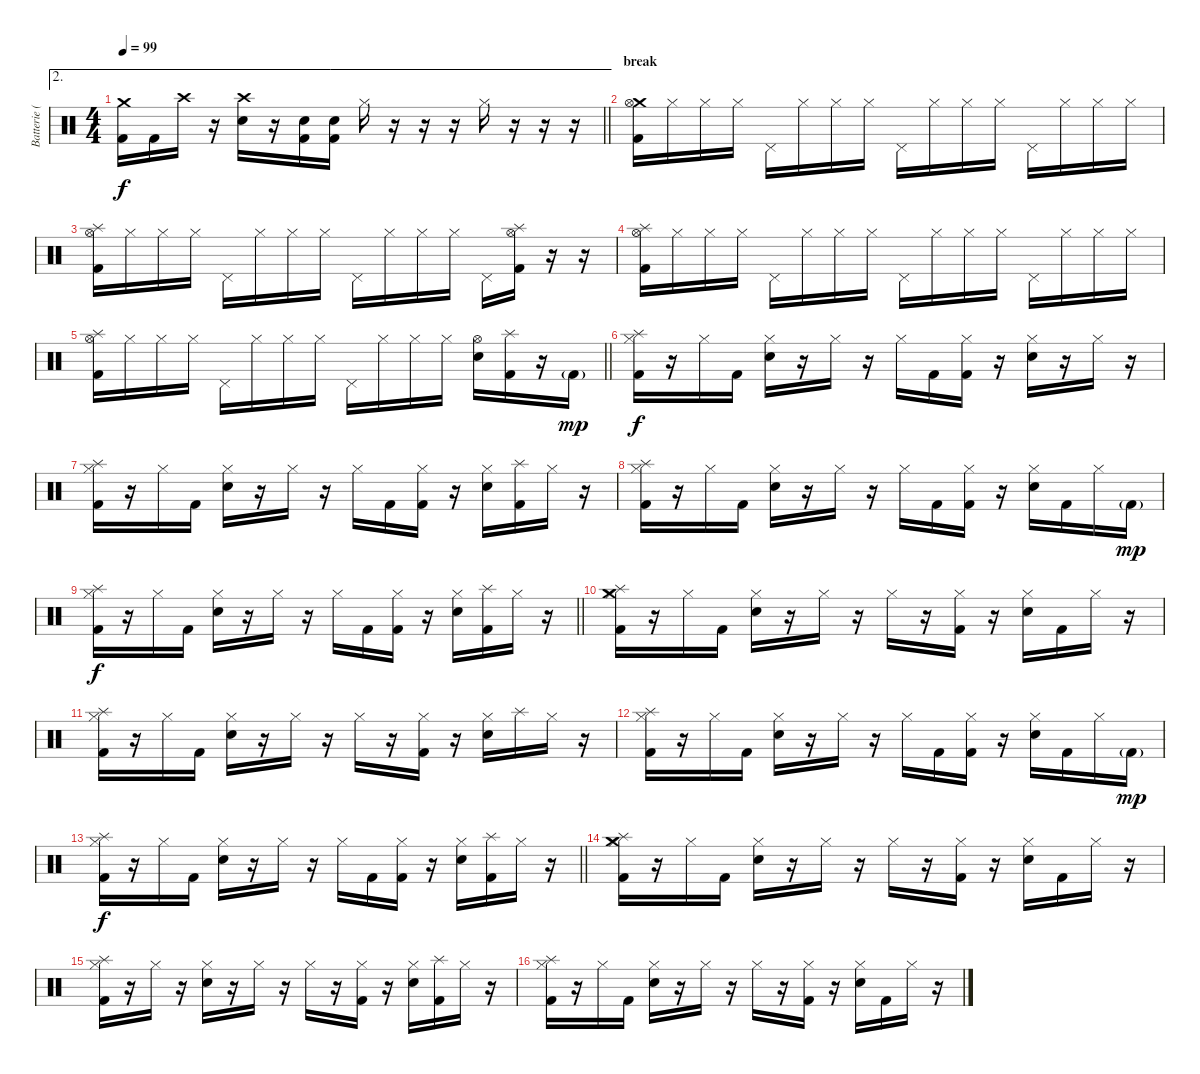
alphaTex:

\track ("Batterie (John)" "Batterie (") {instrument percussion}
\staff {score}
\articulation defaults
\ae 2
\ts (4 4)
\tempo 99
\clef neutral
\barLineRight lightlight
\ks c
("Crash medium (hit)" "Kick (hit) 2").16{dy f} "Kick (hit) 2".16 "Crash high (hit)".16 r.16 ("Crash high (hit)" "Electric Snare (hit)").16 r.16 ("Electric Snare (hit)" "Kick (hit) 2").16 ("Electric Snare (hit)" "Kick (hit) 2").16 "Hi-Hat (closed)".16 r.16 r.16 r.16 "Hi-Hat (closed)".16 r.16 r.16 r.16 |
\section ("" "break")
("Crash medium (hit)" "Hi-Hat (open)" "Kick (hit) 2").16 "Hi-Hat (closed)".16 "Hi-Hat (closed)".16 "Hi-Hat (closed)".16 "Pedal Hi-Hat (hit)".16 "Hi-Hat (closed)".16 "Hi-Hat (closed)".16 "Hi-Hat (closed)".16 "Pedal Hi-Hat (hit)".16 "Hi-Hat (closed)".16 "Hi-Hat (closed)".16 "Hi-Hat (closed)".16 "Pedal Hi-Hat (hit)".16 "Hi-Hat (closed)".16 "Hi-Hat (closed)".16 "Hi-Hat (closed)".16 |
("Splash (hit)" "Hi-Hat (open)" "Kick (hit) 2").16 "Hi-Hat (closed)".16 "Hi-Hat (closed)".16 "Hi-Hat (closed)".16 "Pedal Hi-Hat (hit)".16 "Hi-Hat (closed)".16 "Hi-Hat (closed)".16 "Hi-Hat (closed)".16 "Pedal Hi-Hat (hit)".16 "Hi-Hat (closed)".16 "Hi-Hat (closed)".16 "Hi-Hat (closed)".16 "Pedal Hi-Hat (hit)".16 ("Splash (hit)" "Hi-Hat (open)" "Kick (hit) 2").16 r.16 r.16 |
("Splash (hit)" "Hi-Hat (open)" "Kick (hit) 2").16 "Hi-Hat (closed)".16 "Hi-Hat (closed)".16 "Hi-Hat (closed)".16 "Pedal Hi-Hat (hit)".16 "Hi-Hat (closed)".16 "Hi-Hat (closed)".16 "Hi-Hat (closed)".16 "Pedal Hi-Hat (hit)".16 "Hi-Hat (closed)".16 "Hi-Hat (closed)".16 "Hi-Hat (closed)".16 "Pedal Hi-Hat (hit)".16 "Hi-Hat (closed)".16 "Hi-Hat (closed)".16 "Hi-Hat (closed)".16 |
\barLineRight lightlight
("Splash (hit)" "Hi-Hat (open)" "Kick (hit) 2").16 "Hi-Hat (closed)".16 "Hi-Hat (closed)".16 "Hi-Hat (closed)".16 "Pedal Hi-Hat (hit)".16 "Hi-Hat (closed)".16 "Hi-Hat (closed)".16 "Hi-Hat (closed)".16 "Pedal Hi-Hat (hit)".16 "Hi-Hat (closed)".16 "Hi-Hat (closed)".16 "Hi-Hat (closed)".16 ("Hi-Hat (open)" "Electric Snare (hit)").16 ("Splash (hit)" "Kick (hit) 2").16 r.16 "Kick (hit) 2"{g}.16{dy mp} |
("Splash (hit)" "Hi-Hat (closed)" "Kick (hit) 2").16{dy f} r.16 "Hi-Hat (closed)".16 "Kick (hit) 2".16 ("Hi-Hat (closed)" "Electric Snare (hit)").16 r.16 "Hi-Hat (closed)".16 r.16 "Hi-Hat (closed)".16 "Kick (hit) 2".16 ("Hi-Hat (closed)" "Kick (hit) 2").16 r.16 ("Hi-Hat (closed)" "Electric Snare (hit)").16 r.16 "Hi-Hat (closed)".16 r.16 |
("Splash (hit)" "Hi-Hat (closed)" "Kick (hit) 2").16 r.16 "Hi-Hat (closed)".16 "Kick (hit) 2".16 ("Hi-Hat (closed)" "Electric Snare (hit)").16 r.16 "Hi-Hat (closed)".16 r.16 "Hi-Hat (closed)".16 "Kick (hit) 2".16 ("Hi-Hat (closed)" "Kick (hit) 2").16 r.16 ("Hi-Hat (closed)" "Electric Snare (hit)").16 ("Splash (hit)" "Kick (hit) 2").16 "Hi-Hat (closed)".16 r.16 |
("Splash (hit)" "Hi-Hat (closed)" "Kick (hit) 2").16 r.16 "Hi-Hat (closed)".16 "Kick (hit) 2".16 ("Hi-Hat (closed)" "Electric Snare (hit)").16 r.16 "Hi-Hat (closed)".16 r.16 "Hi-Hat (closed)".16 "Kick (hit) 2".16 ("Hi-Hat (closed)" "Kick (hit) 2").16 r.16 ("Hi-Hat (closed)" "Electric Snare (hit)").16 "Kick (hit) 2".16 "Hi-Hat (closed)".16 "Kick (hit) 2"{g}.16{dy mp} |
\barLineRight lightlight
("Splash (hit)" "Hi-Hat (closed)" "Kick (hit) 2").16{dy f} r.16 "Hi-Hat (closed)".16 "Kick (hit) 2".16 ("Hi-Hat (closed)" "Electric Snare (hit)").16 r.16 "Hi-Hat (closed)".16 r.16 "Hi-Hat (closed)".16 "Kick (hit) 2".16 ("Hi-Hat (closed)" "Kick (hit) 2").16 r.16 ("Hi-Hat (closed)" "Electric Snare (hit)").16 ("Splash (hit)" "Kick (hit) 2").16 "Hi-Hat (closed)".16 r.16 |
("Crash medium (hit)" "Hi-Hat (closed)" "Splash (hit)" "Kick (hit) 2").16 r.16 "Hi-Hat (closed)".16 "Kick (hit) 2".16 ("Hi-Hat (closed)" "Electric Snare (hit)").16 r.16 "Hi-Hat (closed)".16 r.16 "Hi-Hat (closed)".16 r.16 ("Hi-Hat (closed)" "Kick (hit) 2").16 r.16 ("Hi-Hat (closed)" "Electric Snare (hit)").16 "Kick (hit) 2".16 "Hi-Hat (closed)".16 r.16 |
("Splash (hit)" "Hi-Hat (closed)" "Kick (hit) 2").16 r.16 "Hi-Hat (closed)".16 "Kick (hit) 2".16 ("Hi-Hat (closed)" "Electric Snare (hit)").16 r.16 "Hi-Hat (closed)".16 r.16 "Hi-Hat (closed)".16 r.16 ("Hi-Hat (closed)" "Kick (hit) 2").16 r.16 ("Hi-Hat (closed)" "Electric Snare (hit)").16 "Splash (hit)".16 "Hi-Hat (closed)".16 r.16 |
("Splash (hit)" "Hi-Hat (closed)" "Kick (hit) 2").16 r.16 "Hi-Hat (closed)".16 "Kick (hit) 2".16 ("Hi-Hat (closed)" "Electric Snare (hit)").16 r.16 "Hi-Hat (closed)".16 r.16 "Hi-Hat (closed)".16 "Kick (hit) 2".16 ("Hi-Hat (closed)" "Kick (hit) 2").16 r.16 ("Hi-Hat (closed)" "Electric Snare (hit)").16 "Kick (hit) 2".16 "Hi-Hat (closed)".16 "Kick (hit) 2"{g}.16{dy mp} |
\barLineRight lightlight
("Splash (hit)" "Hi-Hat (closed)" "Kick (hit) 2").16{dy f} r.16 "Hi-Hat (closed)".16 "Kick (hit) 2".16 ("Hi-Hat (closed)" "Electric Snare (hit)").16 r.16 "Hi-Hat (closed)".16 r.16 "Hi-Hat (closed)".16 "Kick (hit) 2".16 ("Hi-Hat (closed)" "Kick (hit) 2").16 r.16 ("Hi-Hat (closed)" "Electric Snare (hit)").16 ("Splash (hit)" "Kick (hit) 2").16 "Hi-Hat (closed)".16 r.16 |
("Crash medium (hit)" "Hi-Hat (closed)" "Splash (hit)" "Kick (hit) 2").16 r.16 "Hi-Hat (closed)".16 "Kick (hit) 2".16 ("Hi-Hat (closed)" "Electric Snare (hit)").16 r.16 "Hi-Hat (closed)".16 r.16 "Hi-Hat (closed)".16 r.16 ("Hi-Hat (closed)" "Kick (hit) 2").16 r.16 ("Hi-Hat (closed)" "Electric Snare (hit)").16 "Kick (hit) 2".16 "Hi-Hat (closed)".16 r.16 |
("Splash (hit)" "Hi-Hat (closed)" "Kick (hit) 2").16 r.16 "Hi-Hat (closed)".16 r.16 ("Hi-Hat (closed)" "Electric Snare (hit)").16 r.16 "Hi-Hat (closed)".16 r.16 "Hi-Hat (closed)".16 r.16 ("Hi-Hat (closed)" "Kick (hit) 2").16 r.16 ("Hi-Hat (closed)" "Electric Snare (hit)").16 ("Splash (hit)" "Kick (hit) 2").16 "Hi-Hat (closed)".16 r.16 |
("Splash (hit)" "Hi-Hat (closed)" "Kick (hit) 2").16 r.16 "Hi-Hat (closed)".16 "Kick (hit) 2".16 ("Hi-Hat (closed)" "Electric Snare (hit)").16 r.16 "Hi-Hat (closed)".16 r.16 "Hi-Hat (closed)".16 r.16 ("Hi-Hat (closed)" "Kick (hit) 2").16 r.16 ("Hi-Hat (closed)" "Electric Snare (hit)").16 "Kick (hit) 2".16 "Hi-Hat (closed)".16 r.16
